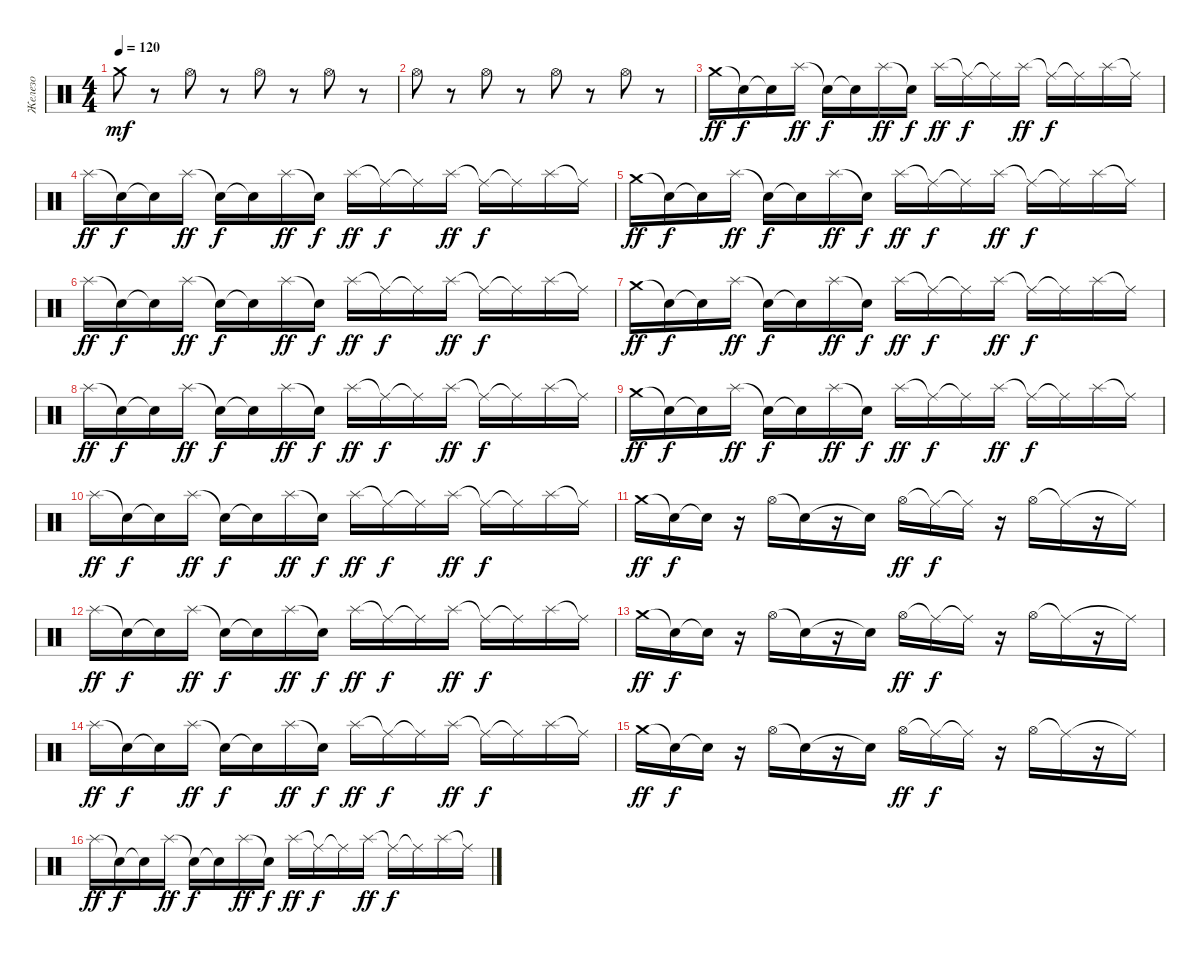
\track ("Железо" "Железо") {instrument percussion}
\staff {score}
\articulation defaults
\ts (4 4)
\tempo 120
\clef neutral
\ks c "Crash medium (hit)".8{dy mf}
r.8 "Hi-Hat (open)".8 r.8 "Hi-Hat (open)".8 r.8 "Hi-Hat (open)".8 r.8 |
"Hi-Hat (open)".8 r.8 "Hi-Hat (open)".8 r.8 "Hi-Hat (open)".8 r.8 "Hi-Hat (open)".8 r.8 |
"Crash medium (hit)".16{dy ff} "Snare (hit)"{t}.16{dy f} "Snare (hit)"{t}.16 "Splash (hit)".16{dy ff} "Snare (hit)"{t}.16{dy f} "Snare (hit)"{t}.16 "Splash (hit)".16{dy ff} "Snare (hit)"{t}.16{dy f} "Splash (hit)".16{dy ff} "Ride (middle)"{t}.16{dy f} "Ride (middle)"{t}.16 "Splash (hit)".16{dy ff} "Ride (middle)"{t}.16{dy f} "Ride (middle)"{t}.16 "Splash (hit)".16 "Ride (middle)"{t}.16 |
"Splash (hit)".16{dy ff} "Snare (hit)"{t}.16{dy f} "Snare (hit)"{t}.16 "Splash (hit)".16{dy ff} "Snare (hit)"{t}.16{dy f} "Snare (hit)"{t}.16 "Splash (hit)".16{dy ff} "Snare (hit)"{t}.16{dy f} "Splash (hit)".16{dy ff} "Ride (middle)"{t}.16{dy f} "Ride (middle)"{t}.16 "Splash (hit)".16{dy ff} "Ride (middle)"{t}.16{dy f} "Ride (middle)"{t}.16 "Splash (hit)".16 "Ride (middle)"{t}.16 |
"Crash medium (hit)".16{dy ff} "Snare (hit)"{t}.16{dy f} "Snare (hit)"{t}.16 "Splash (hit)".16{dy ff} "Snare (hit)"{t}.16{dy f} "Snare (hit)"{t}.16 "Splash (hit)".16{dy ff} "Snare (hit)"{t}.16{dy f} "Splash (hit)".16{dy ff} "Ride (middle)"{t}.16{dy f} "Ride (middle)"{t}.16 "Splash (hit)".16{dy ff} "Ride (middle)"{t}.16{dy f} "Ride (middle)"{t}.16 "Splash (hit)".16 "Ride (middle)"{t}.16 |
"Splash (hit)".16{dy ff} "Snare (hit)"{t}.16{dy f} "Snare (hit)"{t}.16 "Splash (hit)".16{dy ff} "Snare (hit)"{t}.16{dy f} "Snare (hit)"{t}.16 "Splash (hit)".16{dy ff} "Snare (hit)"{t}.16{dy f} "Splash (hit)".16{dy ff} "Ride (middle)"{t}.16{dy f} "Ride (middle)"{t}.16 "Splash (hit)".16{dy ff} "Ride (middle)"{t}.16{dy f} "Ride (middle)"{t}.16 "Splash (hit)".16 "Ride (middle)"{t}.16 |
"Crash medium (hit)".16{dy ff} "Snare (hit)"{t}.16{dy f} "Snare (hit)"{t}.16 "Splash (hit)".16{dy ff} "Snare (hit)"{t}.16{dy f} "Snare (hit)"{t}.16 "Splash (hit)".16{dy ff} "Snare (hit)"{t}.16{dy f} "Splash (hit)".16{dy ff} "Ride (middle)"{t}.16{dy f} "Ride (middle)"{t}.16 "Splash (hit)".16{dy ff} "Ride (middle)"{t}.16{dy f} "Ride (middle)"{t}.16 "Splash (hit)".16 "Ride (middle)"{t}.16 |
"Splash (hit)".16{dy ff} "Snare (hit)"{t}.16{dy f} "Snare (hit)"{t}.16 "Splash (hit)".16{dy ff} "Snare (hit)"{t}.16{dy f} "Snare (hit)"{t}.16 "Splash (hit)".16{dy ff} "Snare (hit)"{t}.16{dy f} "Splash (hit)".16{dy ff} "Ride (middle)"{t}.16{dy f} "Ride (middle)"{t}.16 "Splash (hit)".16{dy ff} "Ride (middle)"{t}.16{dy f} "Ride (middle)"{t}.16 "Splash (hit)".16 "Ride (middle)"{t}.16 |
"Crash medium (hit)".16{dy ff} "Snare (hit)"{t}.16{dy f} "Snare (hit)"{t}.16 "Splash (hit)".16{dy ff} "Snare (hit)"{t}.16{dy f} "Snare (hit)"{t}.16 "Splash (hit)".16{dy ff} "Snare (hit)"{t}.16{dy f} "Splash (hit)".16{dy ff} "Ride (middle)"{t}.16{dy f} "Ride (middle)"{t}.16 "Splash (hit)".16{dy ff} "Ride (middle)"{t}.16{dy f} "Ride (middle)"{t}.16 "Splash (hit)".16 "Ride (middle)"{t}.16 |
"Splash (hit)".16{dy ff} "Snare (hit)"{t}.16{dy f} "Snare (hit)"{t}.16 "Splash (hit)".16{dy ff} "Snare (hit)"{t}.16{dy f} "Snare (hit)"{t}.16 "Splash (hit)".16{dy ff} "Snare (hit)"{t}.16{dy f} "Splash (hit)".16{dy ff} "Ride (middle)"{t}.16{dy f} "Ride (middle)"{t}.16 "Splash (hit)".16{dy ff} "Ride (middle)"{t}.16{dy f} "Ride (middle)"{t}.16 "Splash (hit)".16 "Ride (middle)"{t}.16 |
"Crash medium (hit)".16{dy ff} "Snare (hit)"{t}.16{dy f} "Snare (hit)"{t}.16 r.16 "Hi-Hat (open)".16 "Snare (hit)"{t}.16 r.16 "Snare (hit)"{t}.16 "Hi-Hat (open)".16{dy ff} "Ride (middle)"{t}.16{dy f} "Ride (middle)"{t}.16 r.16 "Hi-Hat (open)".16 "Ride (middle)"{t}.16 r.16 "Ride (middle)"{t}.16 |
"Splash (hit)".16{dy ff} "Snare (hit)"{t}.16{dy f} "Snare (hit)"{t}.16 "Splash (hit)".16{dy ff} "Snare (hit)"{t}.16{dy f} "Snare (hit)"{t}.16 "Splash (hit)".16{dy ff} "Snare (hit)"{t}.16{dy f} "Splash (hit)".16{dy ff} "Ride (middle)"{t}.16{dy f} "Ride (middle)"{t}.16 "Splash (hit)".16{dy ff} "Ride (middle)"{t}.16{dy f} "Ride (middle)"{t}.16 "Splash (hit)".16 "Ride (middle)"{t}.16 |
"Crash medium (hit)".16{dy ff} "Snare (hit)"{t}.16{dy f} "Snare (hit)"{t}.16 r.16 "Hi-Hat (open)".16 "Snare (hit)"{t}.16 r.16 "Snare (hit)"{t}.16 "Hi-Hat (open)".16{dy ff} "Ride (middle)"{t}.16{dy f} "Ride (middle)"{t}.16 r.16 "Hi-Hat (open)".16 "Ride (middle)"{t}.16 r.16 "Ride (middle)"{t}.16 |
"Splash (hit)".16{dy ff} "Snare (hit)"{t}.16{dy f} "Snare (hit)"{t}.16 "Splash (hit)".16{dy ff} "Snare (hit)"{t}.16{dy f} "Snare (hit)"{t}.16 "Splash (hit)".16{dy ff} "Snare (hit)"{t}.16{dy f} "Splash (hit)".16{dy ff} "Ride (middle)"{t}.16{dy f} "Ride (middle)"{t}.16 "Splash (hit)".16{dy ff} "Ride (middle)"{t}.16{dy f} "Ride (middle)"{t}.16 "Splash (hit)".16 "Ride (middle)"{t}.16 |
"Crash medium (hit)".16{dy ff} "Snare (hit)"{t}.16{dy f} "Snare (hit)"{t}.16 r.16 "Hi-Hat (open)".16 "Snare (hit)"{t}.16 r.16 "Snare (hit)"{t}.16 "Hi-Hat (open)".16{dy ff} "Ride (middle)"{t}.16{dy f} "Ride (middle)"{t}.16 r.16 "Hi-Hat (open)".16 "Ride (middle)"{t}.16 r.16 "Ride (middle)"{t}.16 |
"Splash (hit)".16{dy ff} "Snare (hit)"{t}.16{dy f} "Snare (hit)"{t}.16 "Splash (hit)".16{dy ff} "Snare (hit)"{t}.16{dy f} "Snare (hit)"{t}.16 "Splash (hit)".16{dy ff} "Snare (hit)"{t}.16{dy f} "Splash (hit)".16{dy ff} "Ride (middle)"{t}.16{dy f} "Ride (middle)"{t}.16 "Splash (hit)".16{dy ff} "Ride (middle)"{t}.16{dy f} "Ride (middle)"{t}.16 "Splash (hit)".16 "Ride (middle)"{t}.16
